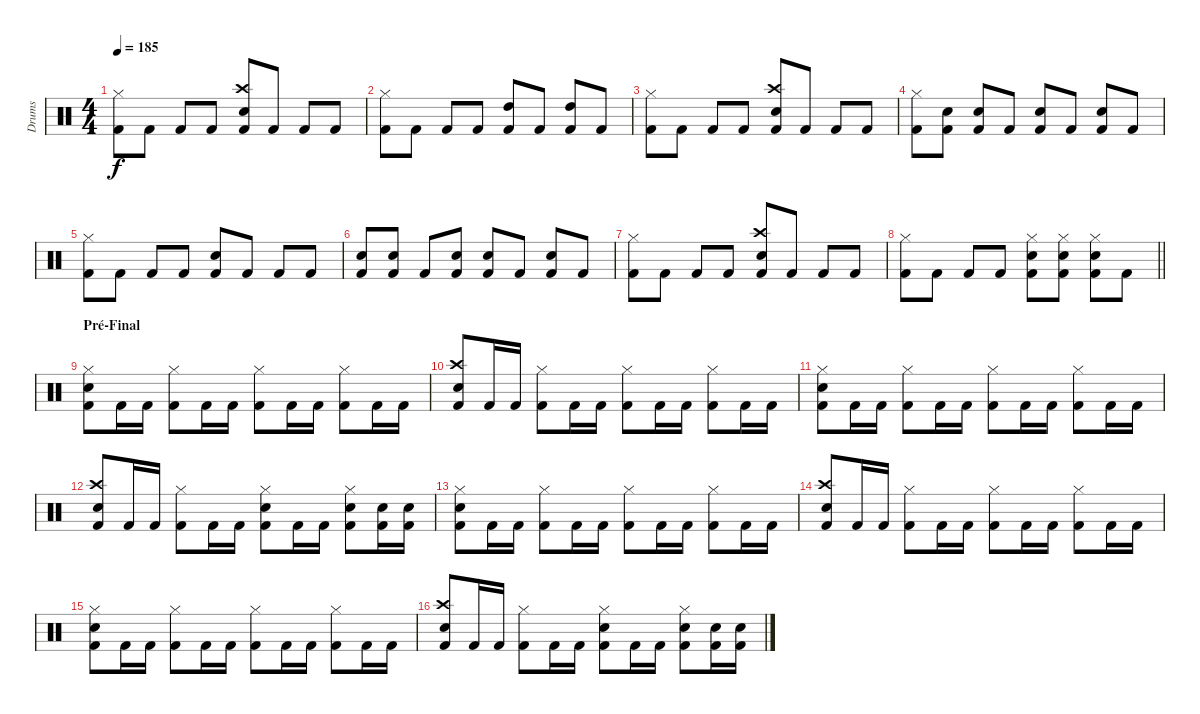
\track ("Drums" "Drums") {instrument percussion}
\staff {score}
\articulation defaults
\ts (4 4)
\tempo 185
\clef neutral
\ks c
("Hi-Hat (closed)" "Kick (hit) 2").8{dy f} "Kick (hit) 2".8 "Kick (hit) 2".8 "Kick (hit) 2".8 ("Crash high (hit)" "Electric Snare (hit)" "Kick (hit) 2").8 "Kick (hit) 2".8 "Kick (hit) 2".8 "Kick (hit) 2".8 |
("Hi-Hat (closed)" "Kick (hit) 2").8 "Kick (hit) 2".8 "Kick (hit) 2".8 "Kick (hit) 2".8 ("High Tom (hit)" "Kick (hit) 2").8 "Kick (hit) 2".8 ("High Tom (hit)" "Kick (hit) 2").8 "Kick (hit) 2".8 |
("Hi-Hat (closed)" "Kick (hit) 2").8 "Kick (hit) 2".8 "Kick (hit) 2".8 "Kick (hit) 2".8 ("Crash high (hit)" "Electric Snare (hit)" "Kick (hit) 2").8 "Kick (hit) 2".8 "Kick (hit) 2".8 "Kick (hit) 2".8 |
("Hi-Hat (closed)" "Kick (hit) 2").8 ("Electric Snare (hit)" "Kick (hit) 2").8 ("Electric Snare (hit)" "Kick (hit) 2").8 "Kick (hit) 2".8 ("Electric Snare (hit)" "Kick (hit) 2").8 "Kick (hit) 2".8 ("Electric Snare (hit)" "Kick (hit) 2").8 "Kick (hit) 2".8 |
("Hi-Hat (closed)" "Kick (hit) 2").8 "Kick (hit) 2".8 "Kick (hit) 2".8 "Kick (hit) 2".8 ("Electric Snare (hit)" "Kick (hit) 2").8 "Kick (hit) 2".8 "Kick (hit) 2".8 "Kick (hit) 2".8 |
("Electric Snare (hit)" "Kick (hit) 2").8 ("Electric Snare (hit)" "Kick (hit) 2").8 "Kick (hit) 2".8 ("Electric Snare (hit)" "Kick (hit) 2").8 ("Electric Snare (hit)" "Kick (hit) 2").8 "Kick (hit) 2".8 ("Electric Snare (hit)" "Kick (hit) 2").8 "Kick (hit) 2".8 |
("Hi-Hat (closed)" "Kick (hit) 2").8 "Kick (hit) 2".8 "Kick (hit) 2".8 "Kick (hit) 2".8 ("Crash high (hit)" "Electric Snare (hit)" "Kick (hit) 2").8 "Kick (hit) 2".8 "Kick (hit) 2".8 "Kick (hit) 2".8 |
\barLineRight lightlight
("Hi-Hat (closed)" "Kick (hit) 2").8 "Kick (hit) 2".8 "Kick (hit) 2".8 "Kick (hit) 2".8 ("Hi-Hat (closed)" "Electric Snare (hit)" "Kick (hit) 2").8 ("Hi-Hat (closed)" "Electric Snare (hit)" "Kick (hit) 2").8 ("Hi-Hat (closed)" "Electric Snare (hit)" "Kick (hit) 2").8 "Kick (hit) 2".8 |
\section ("" "Pré-Final")
("Hi-Hat (closed)" "Electric Snare (hit)" "Kick (hit) 2").8 "Kick (hit) 2".16 "Kick (hit) 2".16 ("Hi-Hat (closed)" "Kick (hit) 2").8 "Kick (hit) 2".16 "Kick (hit) 2".16 ("Hi-Hat (closed)" "Kick (hit) 2").8 "Kick (hit) 2".16 "Kick (hit) 2".16 ("Hi-Hat (closed)" "Kick (hit) 2").8 "Kick (hit) 2".16 "Kick (hit) 2".16 |
("Crash high (hit)" "Electric Snare (hit)" "Kick (hit) 2").8 "Kick (hit) 2".16 "Kick (hit) 2".16 ("Hi-Hat (closed)" "Kick (hit) 2").8 "Kick (hit) 2".16 "Kick (hit) 2".16 ("Hi-Hat (closed)" "Kick (hit) 2").8 "Kick (hit) 2".16 "Kick (hit) 2".16 ("Hi-Hat (closed)" "Kick (hit) 2").8 "Kick (hit) 2".16 "Kick (hit) 2".16 |
("Hi-Hat (closed)" "Electric Snare (hit)" "Kick (hit) 2").8 "Kick (hit) 2".16 "Kick (hit) 2".16 ("Hi-Hat (closed)" "Kick (hit) 2").8 "Kick (hit) 2".16 "Kick (hit) 2".16 ("Hi-Hat (closed)" "Kick (hit) 2").8 "Kick (hit) 2".16 "Kick (hit) 2".16 ("Hi-Hat (closed)" "Kick (hit) 2").8 "Kick (hit) 2".16 "Kick (hit) 2".16 |
("Crash high (hit)" "Electric Snare (hit)" "Kick (hit) 2").8 "Kick (hit) 2".16 "Kick (hit) 2".16 ("Hi-Hat (closed)" "Kick (hit) 2").8 "Kick (hit) 2".16 "Kick (hit) 2".16 ("Hi-Hat (closed)" "Electric Snare (hit)" "Kick (hit) 2").8 "Kick (hit) 2".16 "Kick (hit) 2".16 ("Hi-Hat (closed)" "Electric Snare (hit)" "Kick (hit) 2").8 ("Electric Snare (hit)" "Kick (hit) 2").16 ("Electric Snare (hit)" "Kick (hit) 2").16 |
("Hi-Hat (closed)" "Electric Snare (hit)" "Kick (hit) 2").8 "Kick (hit) 2".16 "Kick (hit) 2".16 ("Hi-Hat (closed)" "Kick (hit) 2").8 "Kick (hit) 2".16 "Kick (hit) 2".16 ("Hi-Hat (closed)" "Kick (hit) 2").8 "Kick (hit) 2".16 "Kick (hit) 2".16 ("Hi-Hat (closed)" "Kick (hit) 2").8 "Kick (hit) 2".16 "Kick (hit) 2".16 |
("Crash high (hit)" "Electric Snare (hit)" "Kick (hit) 2").8 "Kick (hit) 2".16 "Kick (hit) 2".16 ("Hi-Hat (closed)" "Kick (hit) 2").8 "Kick (hit) 2".16 "Kick (hit) 2".16 ("Hi-Hat (closed)" "Kick (hit) 2").8 "Kick (hit) 2".16 "Kick (hit) 2".16 ("Hi-Hat (closed)" "Kick (hit) 2").8 "Kick (hit) 2".16 "Kick (hit) 2".16 |
("Hi-Hat (closed)" "Electric Snare (hit)" "Kick (hit) 2").8 "Kick (hit) 2".16 "Kick (hit) 2".16 ("Hi-Hat (closed)" "Kick (hit) 2").8 "Kick (hit) 2".16 "Kick (hit) 2".16 ("Hi-Hat (closed)" "Kick (hit) 2").8 "Kick (hit) 2".16 "Kick (hit) 2".16 ("Hi-Hat (closed)" "Kick (hit) 2").8 "Kick (hit) 2".16 "Kick (hit) 2".16 |
("Crash high (hit)" "Electric Snare (hit)" "Kick (hit) 2").8 "Kick (hit) 2".16 "Kick (hit) 2".16 ("Hi-Hat (closed)" "Kick (hit) 2").8 "Kick (hit) 2".16 "Kick (hit) 2".16 ("Hi-Hat (closed)" "Electric Snare (hit)" "Kick (hit) 2").8 "Kick (hit) 2".16 "Kick (hit) 2".16 ("Hi-Hat (closed)" "Electric Snare (hit)" "Kick (hit) 2").8 ("Electric Snare (hit)" "Kick (hit) 2").16 ("Electric Snare (hit)" "Kick (hit) 2").16
